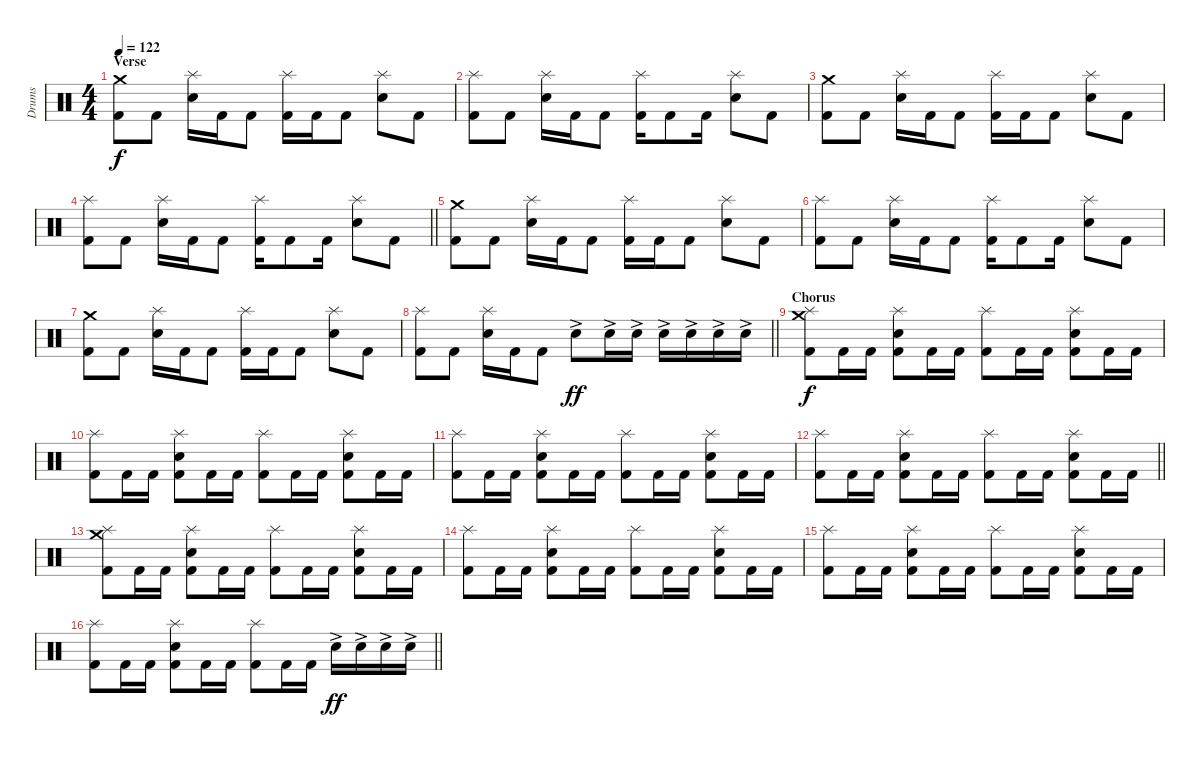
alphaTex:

\track ("Drums" "Drums") {instrument percussion}
\staff {score}
\articulation defaults
\ts (4 4)
\section ("" "Verse")
\tempo 122
\clef neutral
\ks c
("Kick (hit) 2" "Crash medium (hit)").8{dy f} "Kick (hit) 2".8 ("Snare (hit) 2" "Splash (hit)").16 "Kick (hit) 2".16 "Kick (hit) 2".8 ("Kick (hit) 2" "Splash (hit)").16 "Kick (hit) 2".16 "Kick (hit) 2".8 ("Snare (hit) 2" "Splash (hit)").8 "Kick (hit) 2".8 |
("Kick (hit) 2" "Splash (hit)").8 "Kick (hit) 2".8 ("Snare (hit) 2" "Splash (hit)").16 "Kick (hit) 2".16 "Kick (hit) 2".8 ("Kick (hit) 2" "Splash (hit)").16 "Kick (hit) 2".8 "Kick (hit) 2".16 ("Snare (hit) 2" "Splash (hit)").8 "Kick (hit) 2".8 |
("Kick (hit) 2" "Crash medium (hit)").8 "Kick (hit) 2".8 ("Snare (hit) 2" "Splash (hit)").16 "Kick (hit) 2".16 "Kick (hit) 2".8 ("Kick (hit) 2" "Splash (hit)").16 "Kick (hit) 2".16 "Kick (hit) 2".8 ("Snare (hit) 2" "Splash (hit)").8 "Kick (hit) 2".8 |
\barLineRight lightlight
("Kick (hit) 2" "Splash (hit)").8 "Kick (hit) 2".8 ("Snare (hit) 2" "Splash (hit)").16 "Kick (hit) 2".16 "Kick (hit) 2".8 ("Kick (hit) 2" "Splash (hit)").16 "Kick (hit) 2".8 "Kick (hit) 2".16 ("Snare (hit) 2" "Splash (hit)").8 "Kick (hit) 2".8 |
\section ("" "")
("Kick (hit) 2" "Crash medium (hit)").8 "Kick (hit) 2".8 ("Snare (hit) 2" "Splash (hit)").16 "Kick (hit) 2".16 "Kick (hit) 2".8 ("Kick (hit) 2" "Splash (hit)").16 "Kick (hit) 2".16 "Kick (hit) 2".8 ("Snare (hit) 2" "Splash (hit)").8 "Kick (hit) 2".8 |
("Kick (hit) 2" "Splash (hit)").8 "Kick (hit) 2".8 ("Snare (hit) 2" "Splash (hit)").16 "Kick (hit) 2".16 "Kick (hit) 2".8 ("Kick (hit) 2" "Splash (hit)").16 "Kick (hit) 2".8 "Kick (hit) 2".16 ("Snare (hit) 2" "Splash (hit)").8 "Kick (hit) 2".8 |
("Kick (hit) 2" "Crash medium (hit)").8 "Kick (hit) 2".8 ("Snare (hit) 2" "Splash (hit)").16 "Kick (hit) 2".16 "Kick (hit) 2".8 ("Kick (hit) 2" "Splash (hit)").16 "Kick (hit) 2".16 "Kick (hit) 2".8 ("Snare (hit) 2" "Splash (hit)").8 "Kick (hit) 2".8 |
\barLineRight lightlight
("Kick (hit) 2" "Splash (hit)").8 "Kick (hit) 2".8 ("Snare (hit) 2" "Splash (hit)").16 "Kick (hit) 2".16 "Kick (hit) 2".8 "Snare (hit) 2"{ac}.8{dy ff} "Snare (hit) 2"{ac}.16 "Snare (hit) 2"{ac}.16 "Snare (hit) 2"{ac}.16 "Snare (hit) 2"{ac}.16 "Snare (hit) 2"{ac}.16 "Snare (hit) 2"{ac}.16 |
\section ("" "Chorus")
("Kick (hit) 2" "Splash (hit)" "Crash medium (hit)").8{dy f} "Kick (hit) 2".16 "Kick (hit) 2".16 ("Kick (hit) 2" "Snare (hit) 2" "Splash (hit)").8 "Kick (hit) 2".16 "Kick (hit) 2".16 ("Kick (hit) 2" "Splash (hit)").8 "Kick (hit) 2".16 "Kick (hit) 2".16 ("Kick (hit) 2" "Snare (hit) 2" "Splash (hit)").8 "Kick (hit) 2".16 "Kick (hit) 2".16 |
("Kick (hit) 2" "Splash (hit)").8 "Kick (hit) 2".16 "Kick (hit) 2".16 ("Kick (hit) 2" "Snare (hit) 2" "Splash (hit)").8 "Kick (hit) 2".16 "Kick (hit) 2".16 ("Kick (hit) 2" "Splash (hit)").8 "Kick (hit) 2".16 "Kick (hit) 2".16 ("Kick (hit) 2" "Snare (hit) 2" "Splash (hit)").8 "Kick (hit) 2".16 "Kick (hit) 2".16 |
("Kick (hit) 2" "Splash (hit)").8 "Kick (hit) 2".16 "Kick (hit) 2".16 ("Kick (hit) 2" "Snare (hit) 2" "Splash (hit)").8 "Kick (hit) 2".16 "Kick (hit) 2".16 ("Kick (hit) 2" "Splash (hit)").8 "Kick (hit) 2".16 "Kick (hit) 2".16 ("Kick (hit) 2" "Snare (hit) 2" "Splash (hit)").8 "Kick (hit) 2".16 "Kick (hit) 2".16 |
\barLineRight lightlight
("Kick (hit) 2" "Splash (hit)").8 "Kick (hit) 2".16 "Kick (hit) 2".16 ("Kick (hit) 2" "Snare (hit) 2" "Splash (hit)").8 "Kick (hit) 2".16 "Kick (hit) 2".16 ("Kick (hit) 2" "Splash (hit)").8 "Kick (hit) 2".16 "Kick (hit) 2".16 ("Kick (hit) 2" "Snare (hit) 2" "Splash (hit)").8 "Kick (hit) 2".16 "Kick (hit) 2".16 |
\section ("" "")
("Kick (hit) 2" "Splash (hit)" "Crash medium (hit)").8 "Kick (hit) 2".16 "Kick (hit) 2".16 ("Kick (hit) 2" "Snare (hit) 2" "Splash (hit)").8 "Kick (hit) 2".16 "Kick (hit) 2".16 ("Kick (hit) 2" "Splash (hit)").8 "Kick (hit) 2".16 "Kick (hit) 2".16 ("Kick (hit) 2" "Snare (hit) 2" "Splash (hit)").8 "Kick (hit) 2".16 "Kick (hit) 2".16 |
("Kick (hit) 2" "Splash (hit)").8 "Kick (hit) 2".16 "Kick (hit) 2".16 ("Kick (hit) 2" "Snare (hit) 2" "Splash (hit)").8 "Kick (hit) 2".16 "Kick (hit) 2".16 ("Kick (hit) 2" "Splash (hit)").8 "Kick (hit) 2".16 "Kick (hit) 2".16 ("Kick (hit) 2" "Snare (hit) 2" "Splash (hit)").8 "Kick (hit) 2".16 "Kick (hit) 2".16 |
("Kick (hit) 2" "Splash (hit)").8 "Kick (hit) 2".16 "Kick (hit) 2".16 ("Kick (hit) 2" "Snare (hit) 2" "Splash (hit)").8 "Kick (hit) 2".16 "Kick (hit) 2".16 ("Kick (hit) 2" "Splash (hit)").8 "Kick (hit) 2".16 "Kick (hit) 2".16 ("Kick (hit) 2" "Snare (hit) 2" "Splash (hit)").8 "Kick (hit) 2".16 "Kick (hit) 2".16 |
\barLineRight lightlight
("Kick (hit) 2" "Splash (hit)").8 "Kick (hit) 2".16 "Kick (hit) 2".16 ("Kick (hit) 2" "Snare (hit) 2" "Splash (hit)").8 "Kick (hit) 2".16 "Kick (hit) 2".16 ("Kick (hit) 2" "Splash (hit)").8 "Kick (hit) 2".16 "Kick (hit) 2".16 "Snare (hit) 2"{ac}.16{dy ff} "Snare (hit) 2"{ac}.16 "Snare (hit) 2"{ac}.16 "Snare (hit) 2"{ac}.16
